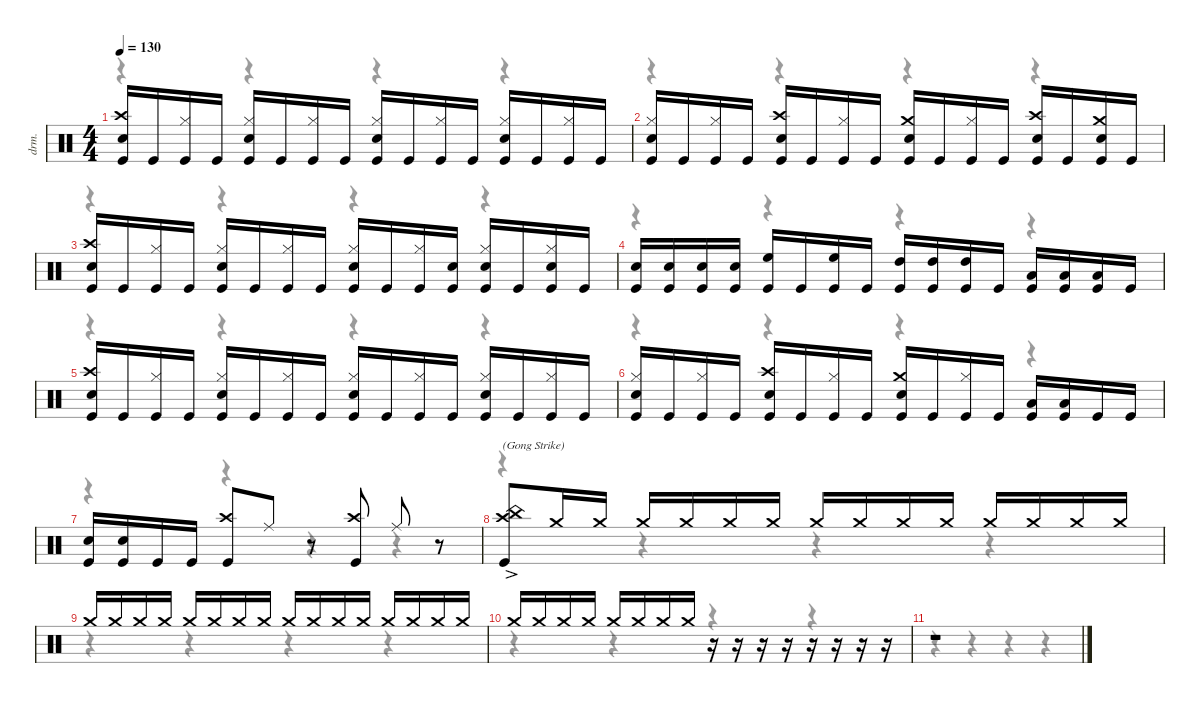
\defaultSystemsLayout 4
\hideDynamics
\bracketExtendMode nobrackets
\track ("Lars Ulrich - Drums" "drm.") {instrument percussion}
\staff {score}
\articulation defaults
\voice
\ts (4 4)
\tempo 130
\clef neutral
\ks c
("Crash high (hit)" "Snare (hit) 2" "Kick (hit)").16{dy f} "Kick (hit)".16 ("Hi-Hat (closed)" "Kick (hit)").16 "Kick (hit)".16 ("Hi-Hat (closed)" "Snare (hit) 2" "Kick (hit)").16 "Kick (hit)".16 ("Hi-Hat (closed)" "Kick (hit)").16 "Kick (hit)".16 ("Hi-Hat (closed)" "Snare (hit) 2" "Kick (hit)").16 "Kick (hit)".16 ("Hi-Hat (closed)" "Kick (hit)").16 "Kick (hit)".16 ("Hi-Hat (closed)" "Snare (hit) 2" "Kick (hit)").16 "Kick (hit)".16 ("Hi-Hat (closed)" "Kick (hit)").16 "Kick (hit)".16 |
("Hi-Hat (closed)" "Snare (hit) 2" "Kick (hit)").16 "Kick (hit)".16 ("Hi-Hat (closed)" "Kick (hit)").16 "Kick (hit)".16 ("Crash high (hit)" "Snare (hit) 2" "Kick (hit)").16 "Kick (hit)".16 ("Hi-Hat (closed)" "Kick (hit)").16 "Kick (hit)".16 ("Crash medium (hit)" "Snare (hit) 2" "Kick (hit)").16 "Kick (hit)".16 ("Hi-Hat (closed)" "Kick (hit)").16 "Kick (hit)".16 ("Crash high (hit)" "Snare (hit) 2" "Kick (hit)").16 "Kick (hit)".16 ("Crash medium (hit)" "Snare (hit) 2" "Kick (hit)").16 "Kick (hit)".16 |
("Crash high (hit)" "Snare (hit) 2" "Kick (hit)").16 "Kick (hit)".16 ("Hi-Hat (closed)" "Kick (hit)").16 "Kick (hit)".16 ("Hi-Hat (closed)" "Snare (hit) 2" "Kick (hit)").16 "Kick (hit)".16 ("Hi-Hat (closed)" "Kick (hit)").16 "Kick (hit)".16 ("Hi-Hat (closed)" "Snare (hit) 2" "Kick (hit)").16 "Kick (hit)".16 ("Hi-Hat (closed)" "Kick (hit)").16 ("Snare (hit) 2" "Kick (hit)").16 ("Hi-Hat (closed)" "Snare (hit) 2" "Kick (hit)").16 "Kick (hit)".16 ("Hi-Hat (closed)" "Snare (hit) 2" "Kick (hit)").16 "Kick (hit)".16 |
("Snare (hit) 2" "Kick (hit)").16 ("Snare (hit) 2" "Kick (hit)").16 ("Snare (hit) 2" "Kick (hit)").16 ("Snare (hit) 2" "Kick (hit)").16 ("High Floor Tom (hit)" "Kick (hit)").16 "Kick (hit)".16 ("High Floor Tom (hit)" "Kick (hit)").16 "Kick (hit)".16 ("High Tom (hit)" "Kick (hit)").16 ("High Tom (hit)" "Kick (hit)").16 ("High Tom (hit)" "Kick (hit)").16 "Kick (hit)".16 ("Low Tom (hit)" "Kick (hit)").16 ("Low Tom (hit)" "Kick (hit)").16 ("Low Tom (hit)" "Kick (hit)").16 "Kick (hit)".16 |
("Crash high (hit)" "Snare (hit) 2" "Kick (hit)").16 "Kick (hit)".16 ("Hi-Hat (closed)" "Kick (hit)").16 "Kick (hit)".16 ("Hi-Hat (closed)" "Snare (hit) 2" "Kick (hit)").16 "Kick (hit)".16 ("Hi-Hat (closed)" "Kick (hit)").16 "Kick (hit)".16 ("Hi-Hat (closed)" "Snare (hit) 2" "Kick (hit)").16 "Kick (hit)".16 ("Hi-Hat (closed)" "Kick (hit)").16 "Kick (hit)".16 ("Hi-Hat (closed)" "Snare (hit) 2" "Kick (hit)").16 "Kick (hit)".16 ("Hi-Hat (closed)" "Kick (hit)").16 "Kick (hit)".16 |
("Hi-Hat (closed)" "Snare (hit) 2" "Kick (hit)").16 "Kick (hit)".16 ("Hi-Hat (closed)" "Kick (hit)").16 "Kick (hit)".16 ("Crash high (hit)" "Snare (hit) 2" "Kick (hit)").16 "Kick (hit)".16 ("Hi-Hat (closed)" "Kick (hit)").16 "Kick (hit)".16 ("Crash medium (hit)" "Snare (hit) 2" "Kick (hit)").16 "Kick (hit)".16 ("Hi-Hat (closed)" "Kick (hit)").16 "Kick (hit)".16 ("Low Tom (hit)" "Kick (hit)").16 ("Low Tom (hit)" "Kick (hit)").16 "Kick (hit)".16 "Kick (hit)".16 |
("Snare (hit) 2" "Kick (hit)").16 ("Snare (hit) 2" "Kick (hit)").16 "Kick (hit)".16 "Kick (hit)".16 ("Crash high (hit)" "Kick (hit)").8 "Ride (middle)".8 r.8 ("Crash high (hit)" "Kick (hit)").8 "Ride (middle)".8 r.8 |
("China (hit)"{ac} "Crash high (hit)" "Kick (hit)").8{txt "(Gong Strike)"} "Crash medium (hit)".16{dy ppp} "Crash medium (hit)".16 "Crash medium (hit)".16 "Crash medium (hit)".16{dy pp} "Crash medium (hit)".16 "Crash medium (hit)".16 "Crash medium (hit)".16 "Crash medium (hit)".16{dy p} "Crash medium (hit)".16 "Crash medium (hit)".16 "Crash medium (hit)".16{dy mp} "Crash medium (hit)".16 "Crash medium (hit)".16 "Crash medium (hit)".16 |
"Crash medium (hit)".16{dy mf} "Crash medium (hit)".16 "Crash medium (hit)".16 "Crash medium (hit)".16{dy f} "Crash medium (hit)".16 "Crash medium (hit)".16 "Crash medium (hit)".16 "Crash medium (hit)".16 "Crash medium (hit)".16{dy mf} "Crash medium (hit)".16 "Crash medium (hit)".16{dy mp} "Crash medium (hit)".16 "Crash medium (hit)".16 "Crash medium (hit)".16{dy p} "Crash medium (hit)".16 "Crash medium (hit)".16 |
"Crash medium (hit)".16{dy pp} "Crash medium (hit)".16 "Crash medium (hit)".16 "Crash medium (hit)".16 "Crash medium (hit)".16{dy ppp} "Crash medium (hit)".16 "Crash medium (hit)".16 "Crash medium (hit)".16 r.16 r.16 r.16 r.16 r.16 r.16 r.16 r.16 |
r.1
\voice
\clef neutral
\ottava regular
\simile none
\ks c
r.4{dy mf} r.4 r.4 r.4 |
r.4 r.4 r.4 r.4 |
r.4 r.4 r.4 r.4 |
r.4 r.4 r.4 r.4 |
r.4 r.4 r.4 r.4 |
r.4 r.4 r.4 r.4 |
r.4 r.4 r.4 r.4 |
r.4 r.4 r.4 r.4 |
r.4 r.4 r.4 r.4 |
r.4 r.4 r.4 r.4 |
r.4 r.4 r.4 r.4
